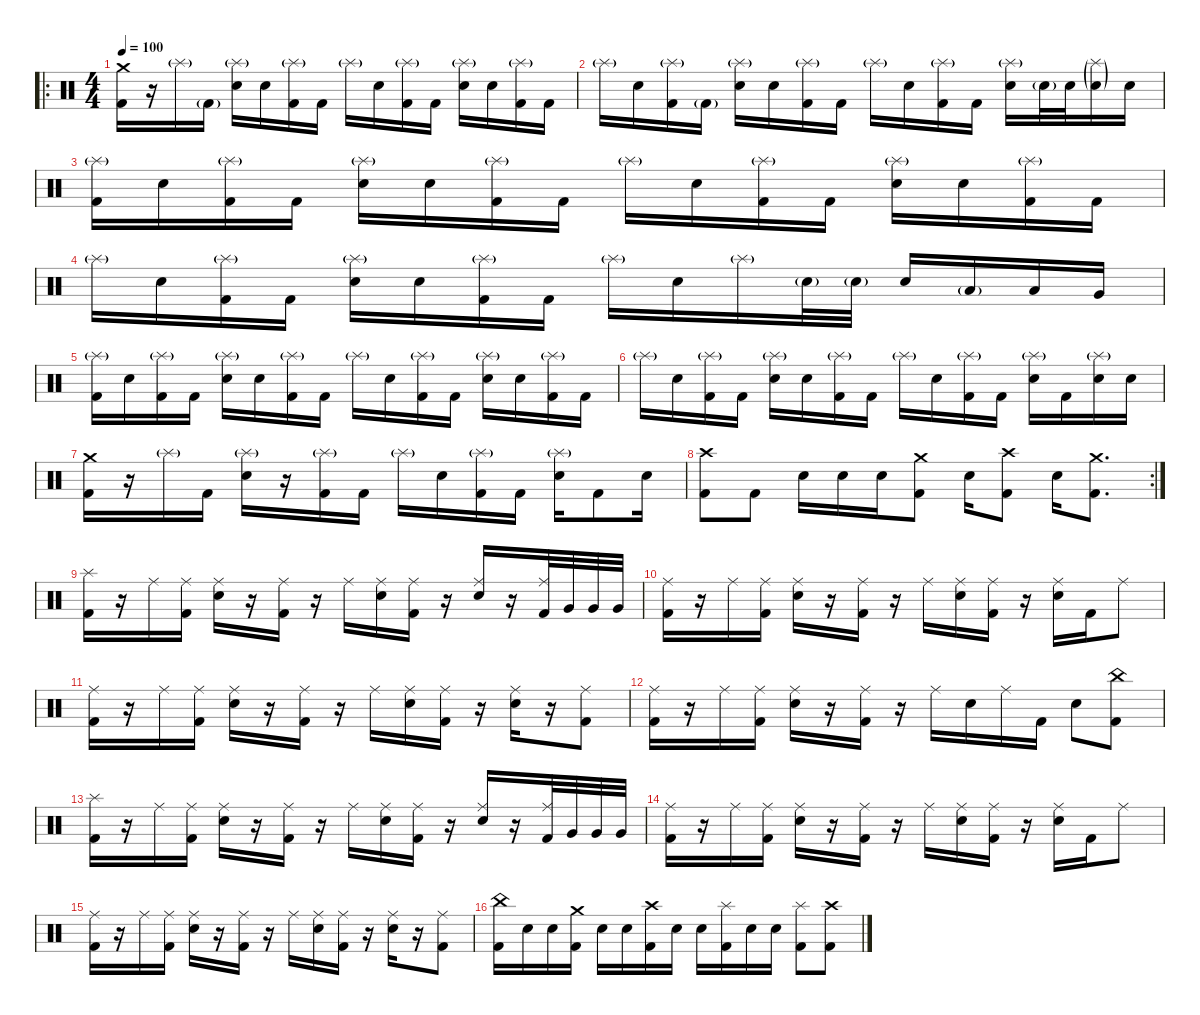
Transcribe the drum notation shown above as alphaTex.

\defaultSystemsLayout 4
\hideDynamics
\bracketExtendMode nobrackets
\singleTrackTrackNamePolicy hidden
\multiTrackTrackNamePolicy hidden
\firstSystemTrackNameMode fullname
\firstSystemTrackNameOrientation horizontal
\otherSystemsTrackNameOrientation horizontal
\track ("Drums" "drm.") {instrument percussion}
\staff {score}
\articulation defaults
\ro
\ts (4 4)
\tempo 100
\clef neutral
\ks c
("Crash medium (hit)" "Kick (hit) 2").16{dy f beam Down} r.16{beam Down} "Splash (hit)"{g}.16{dy mf beam Down} "Kick (hit) 2"{g}.16{beam Down} ("Splash (hit)"{g} "Snare (hit) 2").16{dy f beam Down} "Snare (hit) 2".16{beam Down} ("Splash (hit)"{g} "Kick (hit) 2").16{beam Down} "Kick (hit) 2".16{beam Down} "Splash (hit)"{g}.16{dy mf beam Down} "Snare (hit) 2".16{dy f beam Down} ("Splash (hit)"{g} "Kick (hit) 2").16{beam Down} "Kick (hit) 2".16{beam Down} ("Splash (hit)"{g} "Snare (hit) 2").16{beam Down} "Snare (hit) 2".16{beam Down} ("Splash (hit)"{g} "Kick (hit) 2").16{beam Down} "Kick (hit) 2".16{beam Down} |
"Splash (hit)"{g}.16{dy mf beam Down} "Snare (hit) 2".16{dy f beam Down} ("Splash (hit)"{g} "Kick (hit) 2").16{beam Down} "Kick (hit) 2"{g}.16{dy mf beam Down} ("Splash (hit)"{g} "Snare (hit) 2").16{dy f beam Down} "Snare (hit) 2".16{beam Down} ("Splash (hit)"{g} "Kick (hit) 2").16{beam Down} "Kick (hit) 2".16{beam Down} "Splash (hit)"{g}.16{dy mf beam Down} "Snare (hit) 2".16{dy f beam Down} ("Splash (hit)"{g} "Kick (hit) 2").16{beam Down} "Kick (hit) 2".16{beam Down} ("Splash (hit)"{g} "Snare (hit) 2").16{beam Down} "Snare (hit) 2"{g}.32{beam Down} "Snare (hit) 2".32{beam Down} ("Splash (hit)"{g} "Snare (hit) 2"{g}).16{dy mf beam Down} "Snare (hit) 2".16{dy f beam Down} |
("Splash (hit)"{g} "Kick (hit) 2").16{beam Down} "Snare (hit) 2".16{beam Down} ("Splash (hit)"{g} "Kick (hit) 2").16{beam Down} "Kick (hit) 2".16{beam Down} ("Splash (hit)"{g} "Snare (hit) 2").16{beam Down} "Snare (hit) 2".16{beam Down} ("Splash (hit)"{g} "Kick (hit) 2").16{beam Down} "Kick (hit) 2".16{beam Down} "Splash (hit)"{g}.16{dy mf beam Down} "Snare (hit) 2".16{dy f beam Down} ("Splash (hit)"{g} "Kick (hit) 2").16{beam Down} "Kick (hit) 2".16{beam Down} ("Splash (hit)"{g} "Snare (hit) 2").16{beam Down} "Snare (hit) 2".16{beam Down} ("Splash (hit)"{g} "Kick (hit) 2").16{beam Down} "Kick (hit) 2".16{beam Down} |
"Splash (hit)"{g}.16{dy mf beam Down} "Snare (hit) 2".16{dy f beam Down} ("Splash (hit)"{g} "Kick (hit) 2").16{beam Down} "Kick (hit) 2".16{beam Down} ("Splash (hit)"{g} "Snare (hit) 2").16{beam Down} "Snare (hit) 2".16{beam Down} ("Splash (hit)"{g} "Kick (hit) 2").16{beam Down} "Kick (hit) 2".16{beam Down} "Splash (hit)"{g}.16{dy mf beam Down} "Snare (hit) 2".16{dy f beam Down} "Splash (hit)"{g}.16{dy mf beam Down} "Snare (hit) 2"{g}.32{dy f beam Down} "Snare (hit) 2"{g}.32{beam Down} "Snare (hit) 2".16{beam Up} "Low Tom (hit)"{g}.16{beam Up} "Low Tom (hit)".16{beam Up} "Very Low Tom (hit)".16{beam Up} |
("Splash (hit)"{g} "Kick (hit) 2").16{beam Down} "Snare (hit) 2".16{beam Down} ("Splash (hit)"{g} "Kick (hit) 2").16{beam Down} "Kick (hit) 2".16{beam Down} ("Splash (hit)"{g} "Snare (hit) 2").16{beam Down} "Snare (hit) 2".16{beam Down} ("Splash (hit)"{g} "Kick (hit) 2").16{beam Down} "Kick (hit) 2".16{beam Down} "Splash (hit)"{g}.16{dy mf beam Down} "Snare (hit) 2".16{dy f beam Down} ("Splash (hit)"{g} "Kick (hit) 2").16{beam Down} "Kick (hit) 2".16{beam Down} ("Splash (hit)"{g} "Snare (hit) 2").16{beam Down} "Snare (hit) 2".16{beam Down} ("Splash (hit)"{g} "Kick (hit) 2").16{beam Down} "Kick (hit) 2".16{beam Down} |
"Splash (hit)"{g}.16{dy mf beam Down} "Snare (hit) 2".16{dy f beam Down} ("Splash (hit)"{g} "Kick (hit) 2").16{beam Down} "Kick (hit) 2".16{beam Down} ("Splash (hit)"{g} "Snare (hit) 2").16{beam Down} "Snare (hit) 2".16{beam Down} ("Splash (hit)"{g} "Kick (hit) 2").16{beam Down} "Kick (hit) 2".16{beam Down} "Splash (hit)"{g}.16{dy mf beam Down} "Snare (hit) 2".16{dy f beam Down} ("Splash (hit)"{g} "Kick (hit) 2").16{beam Down} "Kick (hit) 2".16{beam Down} ("Splash (hit)"{g} "Snare (hit) 2").16{beam Down} "Kick (hit) 2".16{beam Down} ("Splash (hit)"{g} "Snare (hit) 2").16{beam Down} "Snare (hit) 2".16{beam Down} |
("Crash medium (hit)" "Kick (hit) 2").16{beam Down} r.16{beam Down} "Splash (hit)"{g}.16{dy mf beam Down} "Kick (hit) 2".16{dy f beam Down} ("Splash (hit)"{g} "Snare (hit) 2").16{beam Down} r.16{beam Down} ("Splash (hit)"{g} "Kick (hit) 2").16{beam Down} "Kick (hit) 2".16{beam Down} "Splash (hit)"{g}.16{dy mf beam Down} "Snare (hit) 2".16{dy f beam Down} ("Splash (hit)"{g} "Kick (hit) 2").16{beam Down} "Kick (hit) 2".16{beam Down} ("Splash (hit)"{g} "Snare (hit) 2").16{beam Down} "Kick (hit) 2".8{beam Down} "Snare (hit) 2".16{beam Down} |
\rc 2
("Crash high (hit)" "Kick (hit) 2").8{beam Down} "Kick (hit) 2".8{beam Down} "Snare (hit) 2".16{beam Down} "Snare (hit) 2".16{beam Down} "Snare (hit) 2".16{beam Down} ("Crash medium (hit)" "Kick (hit) 2").8{beam Down} "Snare (hit) 2".16{beam Down} ("Crash high (hit)" "Kick (hit) 2").8{beam Down} "Snare (hit) 2".16{beam Down} ("Crash medium (hit)" "Kick (hit) 2").8{d beam Down} |
("Splash (hit)" "Kick (hit) 2").16{beam Down} r.16{beam Down} "Ride (middle)".16{beam Down} ("Ride (middle)" "Kick (hit) 2").16{beam Down} ("Ride (middle)" "Snare (hit) 2").16{beam Down} r.16{beam Down} ("Ride (middle)" "Kick (hit) 2").16{beam Down} r.16{beam Down} "Ride (middle)".16{beam Down} ("Ride (middle)" "Snare (hit) 2").16{beam Down} ("Ride (middle)" "Kick (hit) 2").16{beam Down} r.16{beam Down} ("Ride (middle)" "Snare (hit) 2").16{beam Up} r.16{beam Up} ("Ride (middle)" "Kick (hit) 2").32{beam Up} "Very Low Tom (hit)".32{beam Up} "Very Low Tom (hit)".32{beam Up} "Very Low Tom (hit)".32{beam Up} |
("Ride (middle)" "Kick (hit) 2").16{beam Down} r.16{beam Down} "Ride (middle)".16{beam Down} ("Ride (middle)" "Kick (hit) 2").16{beam Down} ("Ride (middle)" "Snare (hit) 2").16{beam Down} r.16{beam Down} ("Ride (middle)" "Kick (hit) 2").16{beam Down} r.16{beam Down} "Ride (middle)".16{beam Down} ("Ride (middle)" "Snare (hit) 2").16{beam Down} ("Ride (middle)" "Kick (hit) 2").16{beam Down} r.16{beam Down} ("Ride (middle)" "Snare (hit) 2").16{beam Down} "Kick (hit) 2".16{beam Down} "Ride (middle)".8{beam Down} |
("Ride (middle)" "Kick (hit) 2").16{beam Down} r.16{beam Down} "Ride (middle)".16{beam Down} ("Ride (middle)" "Kick (hit) 2").16{beam Down} ("Ride (middle)" "Snare (hit) 2").16{beam Down} r.16{beam Down} ("Ride (middle)" "Kick (hit) 2").16{beam Down} r.16{beam Down} "Ride (middle)".16{beam Down} ("Ride (middle)" "Snare (hit) 2").16{beam Down} ("Ride (middle)" "Kick (hit) 2").16{beam Down} r.16{beam Down} ("Ride (middle)" "Snare (hit) 2").16{beam Down} r.16{beam Down} ("Ride (middle)" "Kick (hit) 2").8{beam Down} |
("Ride (middle)" "Kick (hit) 2").16{beam Down} r.16{beam Down} "Ride (middle)".16{beam Down} ("Ride (middle)" "Kick (hit) 2").16{beam Down} ("Ride (middle)" "Snare (hit) 2").16{beam Down} r.16{beam Down} ("Ride (middle)" "Kick (hit) 2").16{beam Down} r.16{beam Down} "Ride (middle)".16{beam Down} "Snare (hit) 2".16{beam Down} "Ride (middle)".16{beam Down} "Kick (hit) 2".16{beam Down} "Snare (hit) 2".8{beam Down} ("China (hit)" "Kick (hit) 2").8{beam Down} |
("Splash (hit)" "Kick (hit) 2").16{beam Down} r.16{beam Down} "Ride (middle)".16{beam Down} ("Ride (middle)" "Kick (hit) 2").16{beam Down} ("Ride (middle)" "Snare (hit) 2").16{beam Down} r.16{beam Down} ("Ride (middle)" "Kick (hit) 2").16{beam Down} r.16{beam Down} "Ride (middle)".16{beam Down} ("Ride (middle)" "Snare (hit) 2").16{beam Down} ("Ride (middle)" "Kick (hit) 2").16{beam Down} r.16{beam Down} ("Ride (middle)" "Snare (hit) 2").16{beam Up} r.16{beam Up} ("Ride (middle)" "Kick (hit) 2").32{beam Up} "Very Low Tom (hit)".32{beam Up} "Very Low Tom (hit)".32{beam Up} "Very Low Tom (hit)".32{beam Up} |
("Ride (middle)" "Kick (hit) 2").16{beam Down} r.16{beam Down} "Ride (middle)".16{beam Down} ("Ride (middle)" "Kick (hit) 2").16{beam Down} ("Ride (middle)" "Snare (hit) 2").16{beam Down} r.16{beam Down} ("Ride (middle)" "Kick (hit) 2").16{beam Down} r.16{beam Down} "Ride (middle)".16{beam Down} ("Ride (middle)" "Snare (hit) 2").16{beam Down} ("Ride (middle)" "Kick (hit) 2").16{beam Down} r.16{beam Down} ("Ride (middle)" "Snare (hit) 2").16{beam Down} "Kick (hit) 2".16{beam Down} "Ride (middle)".8{beam Down} |
("Ride (middle)" "Kick (hit) 2").16{beam Down} r.16{beam Down} "Ride (middle)".16{beam Down} ("Ride (middle)" "Kick (hit) 2").16{beam Down} ("Ride (middle)" "Snare (hit) 2").16{beam Down} r.16{beam Down} ("Ride (middle)" "Kick (hit) 2").16{beam Down} r.16{beam Down} "Ride (middle)".16{beam Down} ("Ride (middle)" "Snare (hit) 2").16{beam Down} ("Ride (middle)" "Kick (hit) 2").16{beam Down} r.16{beam Down} ("Ride (middle)" "Snare (hit) 2").16{beam Down} r.16{beam Down} ("Ride (middle)" "Kick (hit) 2").8{beam Down} |
("China (hit)" "Kick (hit) 2").16{beam Down} "Snare (hit) 2".16{beam Down} "Snare (hit) 2".16{beam Down} ("Crash medium (hit)" "Kick (hit) 2").16{beam Down} "Snare (hit) 2".16{beam Down} "Snare (hit) 2".16{beam Down} ("Crash high (hit)" "Kick (hit) 2").16{beam Down} "Snare (hit) 2".16{beam Down} "Snare (hit) 2".16{beam Down} ("Splash (hit)" "Kick (hit) 2").16{beam Down} "Snare (hit) 2".16{beam Down} "Snare (hit) 2".16{beam Down} ("Splash (hit)" "Kick (hit) 2").8{beam Down} ("Crash high (hit)" "Kick (hit) 2").8{beam Down}
